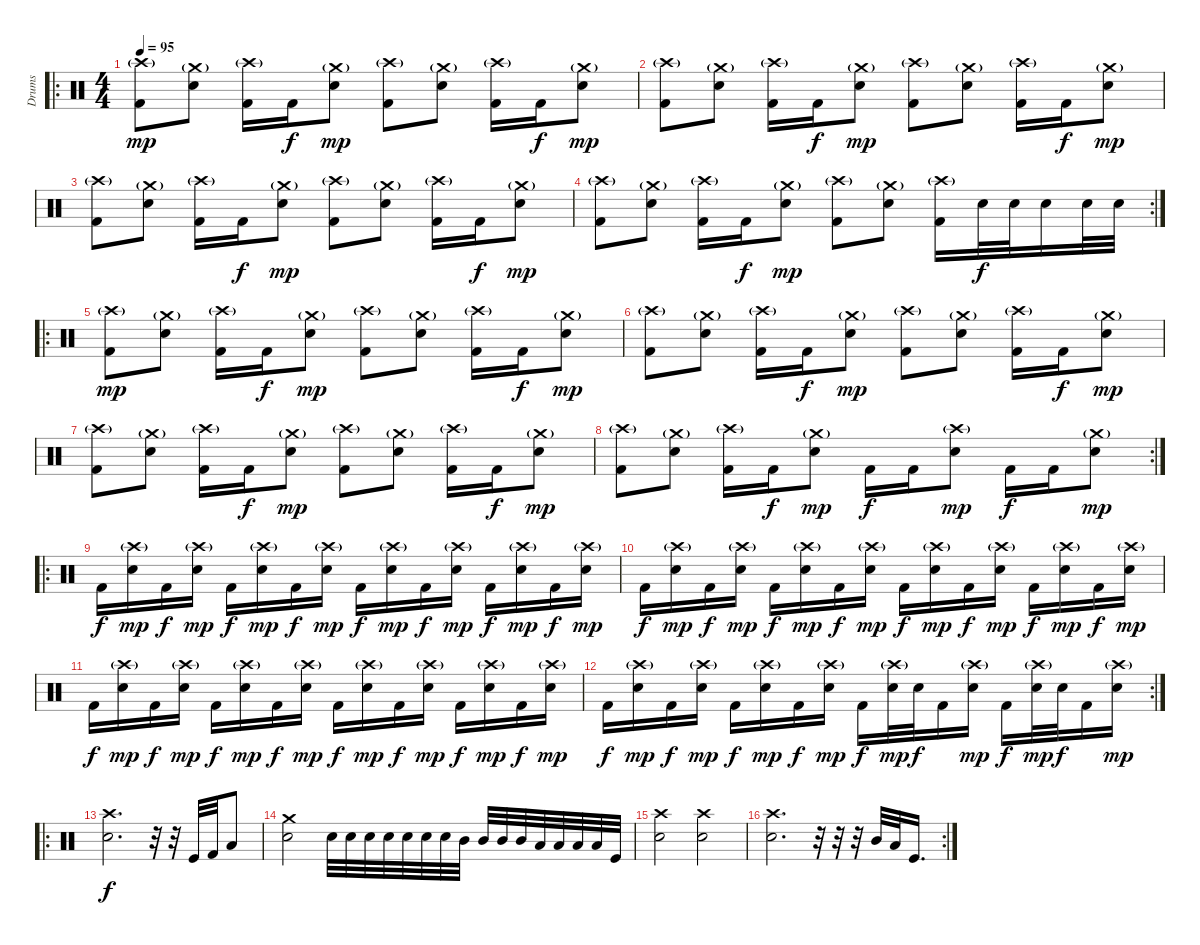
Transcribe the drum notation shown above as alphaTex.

\track ("Drums" "Drums") {instrument percussion}
\staff {score}
\articulation defaults
\ro
\ts (4 4)
\tempo 95
\clef neutral
\ks c
("Crash high (hit)"{g} "Kick (hit) 2").8{dy mp} ("Electric Snare (hit)" "Crash medium (hit)"{g}).8 ("Kick (hit) 2" "Crash high (hit)"{g}).16 "Kick (hit) 2".16{dy f} ("Electric Snare (hit)" "Crash medium (hit)"{g}).8{dy mp} ("Crash high (hit)"{g} "Kick (hit) 2").8 ("Electric Snare (hit)" "Crash medium (hit)"{g}).8 ("Kick (hit) 2" "Crash high (hit)"{g}).16 "Kick (hit) 2".16{dy f} ("Electric Snare (hit)" "Crash medium (hit)"{g}).8{dy mp} |
("Crash high (hit)"{g} "Kick (hit) 2").8 ("Electric Snare (hit)" "Crash medium (hit)"{g}).8 ("Kick (hit) 2" "Crash high (hit)"{g}).16 "Kick (hit) 2".16{dy f} ("Electric Snare (hit)" "Crash medium (hit)"{g}).8{dy mp} ("Crash high (hit)"{g} "Kick (hit) 2").8 ("Electric Snare (hit)" "Crash medium (hit)"{g}).8 ("Kick (hit) 2" "Crash high (hit)"{g}).16 "Kick (hit) 2".16{dy f} ("Electric Snare (hit)" "Crash medium (hit)"{g}).8{dy mp} |
("Crash high (hit)"{g} "Kick (hit) 2").8 ("Electric Snare (hit)" "Crash medium (hit)"{g}).8 ("Kick (hit) 2" "Crash high (hit)"{g}).16 "Kick (hit) 2".16{dy f} ("Electric Snare (hit)" "Crash medium (hit)"{g}).8{dy mp} ("Crash high (hit)"{g} "Kick (hit) 2").8 ("Electric Snare (hit)" "Crash medium (hit)"{g}).8 ("Kick (hit) 2" "Crash high (hit)"{g}).16 "Kick (hit) 2".16{dy f} ("Electric Snare (hit)" "Crash medium (hit)"{g}).8{dy mp} |
\rc 2
("Crash high (hit)"{g} "Kick (hit) 2").8 ("Electric Snare (hit)" "Crash medium (hit)"{g}).8 ("Kick (hit) 2" "Crash high (hit)"{g}).16 "Kick (hit) 2".16{dy f} ("Electric Snare (hit)" "Crash medium (hit)"{g}).8{dy mp} ("Crash high (hit)"{g} "Kick (hit) 2").8 ("Electric Snare (hit)" "Crash medium (hit)"{g}).8 ("Kick (hit) 2" "Crash high (hit)"{g}).16 "Electric Snare (hit)".32{dy f} "Electric Snare (hit)".32 "Electric Snare (hit)".16 "Electric Snare (hit)".32 "Electric Snare (hit)".32 |
\ro
("Crash high (hit)"{g} "Kick (hit) 2").8{dy mp} ("Electric Snare (hit)" "Crash medium (hit)"{g}).8 ("Kick (hit) 2" "Crash high (hit)"{g}).16 "Kick (hit) 2".16{dy f} ("Electric Snare (hit)" "Crash medium (hit)"{g}).8{dy mp} ("Crash high (hit)"{g} "Kick (hit) 2").8 ("Electric Snare (hit)" "Crash medium (hit)"{g}).8 ("Kick (hit) 2" "Crash high (hit)"{g}).16 "Kick (hit) 2".16{dy f} ("Electric Snare (hit)" "Crash medium (hit)"{g}).8{dy mp} |
("Crash high (hit)"{g} "Kick (hit) 2").8 ("Electric Snare (hit)" "Crash medium (hit)"{g}).8 ("Kick (hit) 2" "Crash high (hit)"{g}).16 "Kick (hit) 2".16{dy f} ("Electric Snare (hit)" "Crash medium (hit)"{g}).8{dy mp} ("Crash high (hit)"{g} "Kick (hit) 2").8 ("Electric Snare (hit)" "Crash medium (hit)"{g}).8 ("Kick (hit) 2" "Crash high (hit)"{g}).16 "Kick (hit) 2".16{dy f} ("Electric Snare (hit)" "Crash medium (hit)"{g}).8{dy mp} |
("Crash high (hit)"{g} "Kick (hit) 2").8 ("Electric Snare (hit)" "Crash medium (hit)"{g}).8 ("Kick (hit) 2" "Crash high (hit)"{g}).16 "Kick (hit) 2".16{dy f} ("Electric Snare (hit)" "Crash medium (hit)"{g}).8{dy mp} ("Crash high (hit)"{g} "Kick (hit) 2").8 ("Electric Snare (hit)" "Crash medium (hit)"{g}).8 ("Kick (hit) 2" "Crash high (hit)"{g}).16 "Kick (hit) 2".16{dy f} ("Electric Snare (hit)" "Crash medium (hit)"{g}).8{dy mp} |
\rc 2
("Crash high (hit)"{g} "Kick (hit) 2").8 ("Electric Snare (hit)" "Crash medium (hit)"{g}).8 ("Kick (hit) 2" "Crash high (hit)"{g}).16 "Kick (hit) 2".16{dy f} ("Electric Snare (hit)" "Crash medium (hit)"{g}).8{dy mp} "Kick (hit) 2".16{dy f} "Kick (hit) 2".16 ("Electric Snare (hit)" "Crash high (hit)"{g}).8{dy mp} "Kick (hit) 2".16{dy f} "Kick (hit) 2".16 ("Electric Snare (hit)" "Crash medium (hit)"{g}).8{dy mp} |
\ro "Kick (hit) 2".16{dy f}
("Electric Snare (hit)" "Crash high (hit)"{g}).16{dy mp} "Kick (hit) 2".16{dy f} ("Electric Snare (hit)" "Crash high (hit)"{g}).16{dy mp} "Kick (hit) 2".16{dy f} ("Electric Snare (hit)" "Crash high (hit)"{g}).16{dy mp} "Kick (hit) 2".16{dy f} ("Electric Snare (hit)" "Crash high (hit)"{g}).16{dy mp} "Kick (hit) 2".16{dy f} ("Electric Snare (hit)" "Crash high (hit)"{g}).16{dy mp} "Kick (hit) 2".16{dy f} ("Electric Snare (hit)" "Crash high (hit)"{g}).16{dy mp} "Kick (hit) 2".16{dy f} ("Electric Snare (hit)" "Crash high (hit)"{g}).16{dy mp} "Kick (hit) 2".16{dy f} ("Electric Snare (hit)" "Crash high (hit)"{g}).16{dy mp} |
"Kick (hit) 2".16{dy f} ("Electric Snare (hit)" "Crash high (hit)"{g}).16{dy mp} "Kick (hit) 2".16{dy f} ("Electric Snare (hit)" "Crash high (hit)"{g}).16{dy mp} "Kick (hit) 2".16{dy f} ("Electric Snare (hit)" "Crash high (hit)"{g}).16{dy mp} "Kick (hit) 2".16{dy f} ("Electric Snare (hit)" "Crash high (hit)"{g}).16{dy mp} "Kick (hit) 2".16{dy f} ("Electric Snare (hit)" "Crash high (hit)"{g}).16{dy mp} "Kick (hit) 2".16{dy f} ("Electric Snare (hit)" "Crash high (hit)"{g}).16{dy mp} "Kick (hit) 2".16{dy f} ("Electric Snare (hit)" "Crash high (hit)"{g}).16{dy mp} "Kick (hit) 2".16{dy f} ("Electric Snare (hit)" "Crash high (hit)"{g}).16{dy mp} |
"Kick (hit) 2".16{dy f} ("Electric Snare (hit)" "Crash high (hit)"{g}).16{dy mp} "Kick (hit) 2".16{dy f} ("Electric Snare (hit)" "Crash high (hit)"{g}).16{dy mp} "Kick (hit) 2".16{dy f} ("Electric Snare (hit)" "Crash high (hit)"{g}).16{dy mp} "Kick (hit) 2".16{dy f} ("Electric Snare (hit)" "Crash high (hit)"{g}).16{dy mp} "Kick (hit) 2".16{dy f} ("Electric Snare (hit)" "Crash high (hit)"{g}).16{dy mp} "Kick (hit) 2".16{dy f} ("Electric Snare (hit)" "Crash high (hit)"{g}).16{dy mp} "Kick (hit) 2".16{dy f} ("Electric Snare (hit)" "Crash high (hit)"{g}).16{dy mp} "Kick (hit) 2".16{dy f} ("Electric Snare (hit)" "Crash high (hit)"{g}).16{dy mp} |
\rc 2 "Kick (hit) 2".16{dy f}
("Electric Snare (hit)" "Crash high (hit)"{g}).16{dy mp} "Kick (hit) 2".16{dy f} ("Electric Snare (hit)" "Crash high (hit)"{g}).16{dy mp} "Kick (hit) 2".16{dy f} ("Electric Snare (hit)" "Crash high (hit)"{g}).16{dy mp} "Kick (hit) 2".16{dy f} ("Electric Snare (hit)" "Crash high (hit)"{g}).16{dy mp} "Kick (hit) 2".16{dy f} ("Electric Snare (hit)" "Crash high (hit)"{g}).32{dy mp} "Electric Snare (hit)".32{dy f} "Kick (hit) 2".16 ("Electric Snare (hit)" "Crash high (hit)"{g}).16{dy mp} "Kick (hit) 2".16{dy f} ("Electric Snare (hit)" "Crash high (hit)"{g}).32{dy mp} "Electric Snare (hit)".32{dy f} "Kick (hit) 2".16 ("Electric Snare (hit)" "Crash high (hit)"{g}).16{dy mp} |
\ro
("Snare (hit) 2" "Crash high (hit)").2{d dy f} r.32 r.32 "Kick (hit)".32 "Kick (hit) 2".32 "Low Tom (hit)".8 |
("Snare (hit) 2" "Crash medium (hit)").2 "Electric Snare (hit)".32 "Electric Snare (hit)".32 "Electric Snare (hit)".32 "Electric Snare (hit)".32 "Electric Snare (hit)".32 "Electric Snare (hit)".32 "Electric Snare (hit)".32 "Mid Tom (hit)".32 "Mid Tom (hit)".32 "Mid Tom (hit)".32 "Mid Tom (hit)".32 "Low Tom (hit)".32 "Low Tom (hit)".32 "Low Tom (hit)".32 "Low Tom (hit)".32 "Kick (hit)".32 |
("Crash high (hit)" "Snare (hit) 2").2 ("Crash high (hit)" "Snare (hit) 2").2 |
\rc 2
("Crash high (hit)" "Snare (hit) 2").2{d} r.32 r.32 r.32 "Mid Tom (hit)".32 "Low Tom (hit)".32 "Kick (hit)".16{d}
